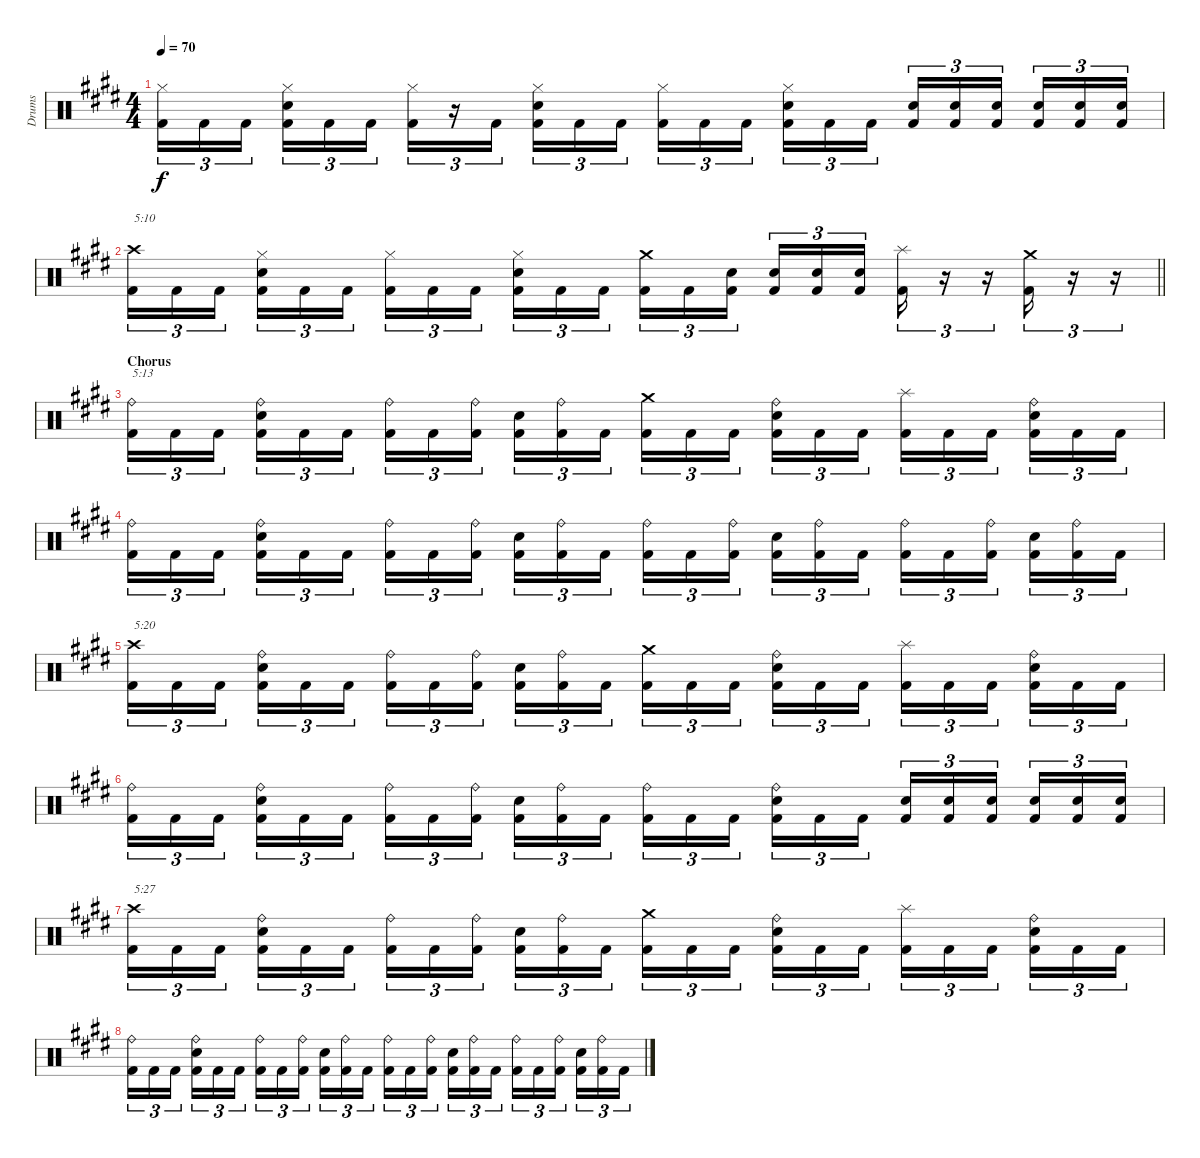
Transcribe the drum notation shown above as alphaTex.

\track ("Drums" "Drums") {instrument percussion}
\staff {score}
\articulation defaults
\ts (4 4)
\tempo 70
\clef neutral
\ks c#minor
("Hi-Hat (closed)" "Kick (hit) 2").16{tu (3 2) dy f} "Kick (hit) 2".16{tu (3 2)} "Kick (hit) 2".16{tu (3 2) beam splitsecondary} ("Hi-Hat (closed)" "Snare (hit) 2" "Kick (hit) 2").16{tu (3 2)} "Kick (hit) 2".16{tu (3 2)} "Kick (hit) 2".16{tu (3 2)} ("Hi-Hat (closed)" "Kick (hit) 2").16{tu (3 2)} r.16{tu (3 2)} "Kick (hit) 2".16{tu (3 2) beam splitsecondary} ("Hi-Hat (closed)" "Snare (hit) 2" "Kick (hit) 2").16{tu (3 2)} "Kick (hit) 2".16{tu (3 2)} "Kick (hit) 2".16{tu (3 2)} ("Hi-Hat (closed)" "Kick (hit) 2").16{tu (3 2)} "Kick (hit) 2".16{tu (3 2)} "Kick (hit) 2".16{tu (3 2) beam splitsecondary} ("Hi-Hat (closed)" "Snare (hit) 2" "Kick (hit) 2").16{tu (3 2)} "Kick (hit) 2".16{tu (3 2)} "Kick (hit) 2".16{tu (3 2)} ("Snare (hit) 2" "Kick (hit) 2").16{tu (3 2)} ("Snare (hit) 2" "Kick (hit) 2").16{tu (3 2)} ("Snare (hit) 2" "Kick (hit) 2").16{tu (3 2) beam splitsecondary} ("Snare (hit) 2" "Kick (hit) 2").16{tu (3 2)} ("Snare (hit) 2" "Kick (hit) 2").16{tu (3 2)} ("Snare (hit) 2" "Kick (hit) 2").16{tu (3 2)} |
\barLineRight lightlight
("Crash high (hit)" "Kick (hit) 2").16{tu (3 2) txt "5:10"} "Kick (hit) 2".16{tu (3 2)} "Kick (hit) 2".16{tu (3 2) beam splitsecondary} ("Hi-Hat (closed)" "Snare (hit) 2" "Kick (hit) 2").16{tu (3 2)} "Kick (hit) 2".16{tu (3 2)} "Kick (hit) 2".16{tu (3 2)} ("Hi-Hat (closed)" "Kick (hit) 2").16{tu (3 2)} "Kick (hit) 2".16{tu (3 2)} "Kick (hit) 2".16{tu (3 2) beam splitsecondary} ("Hi-Hat (closed)" "Snare (hit) 2" "Kick (hit) 2").16{tu (3 2)} "Kick (hit) 2".16{tu (3 2)} "Kick (hit) 2".16{tu (3 2)} ("Crash medium (hit)" "Kick (hit) 2").16{tu (3 2)} "Kick (hit) 2".16{tu (3 2)} ("Snare (hit) 2" "Kick (hit) 2").16{tu (3 2) beam splitsecondary} ("Snare (hit) 2" "Kick (hit) 2").16{tu (3 2)} ("Snare (hit) 2" "Kick (hit) 2").16{tu (3 2)} ("Snare (hit) 2" "Kick (hit) 2").16{tu (3 2)} ("Splash (hit)" "Kick (hit) 2").16{tu (3 2)} r.16{tu (3 2)} r.16{tu (3 2)} ("Crash medium (hit)" "Kick (hit) 2").16{tu (3 2)} r.16{tu (3 2)} r.16{tu (3 2)} |
\section ("" "Chorus")
("Ride (bell)" "Kick (hit) 2").16{tu (3 2) txt "5:13"} "Kick (hit) 2".16{tu (3 2)} "Kick (hit) 2".16{tu (3 2) beam splitsecondary} ("Ride (bell)" "Snare (hit) 2" "Kick (hit) 2").16{tu (3 2)} "Kick (hit) 2".16{tu (3 2)} "Kick (hit) 2".16{tu (3 2)} ("Ride (bell)" "Kick (hit) 2").16{tu (3 2)} "Kick (hit) 2".16{tu (3 2)} ("Ride (bell)" "Kick (hit) 2").16{tu (3 2) beam splitsecondary} ("Snare (hit) 2" "Kick (hit) 2").16{tu (3 2)} ("Ride (bell)" "Kick (hit) 2").16{tu (3 2)} "Kick (hit) 2".16{tu (3 2)} ("Crash medium (hit)" "Kick (hit) 2").16{tu (3 2)} "Kick (hit) 2".16{tu (3 2)} "Kick (hit) 2".16{tu (3 2) beam splitsecondary} ("Ride (bell)" "Snare (hit) 2" "Kick (hit) 2").16{tu (3 2)} "Kick (hit) 2".16{tu (3 2)} "Kick (hit) 2".16{tu (3 2)} ("Splash (hit)" "Kick (hit) 2").16{tu (3 2)} "Kick (hit) 2".16{tu (3 2)} "Kick (hit) 2".16{tu (3 2) beam splitsecondary} ("Ride (bell)" "Snare (hit) 2" "Kick (hit) 2").16{tu (3 2)} "Kick (hit) 2".16{tu (3 2)} "Kick (hit) 2".16{tu (3 2)} |
("Ride (bell)" "Kick (hit) 2").16{tu (3 2)} "Kick (hit) 2".16{tu (3 2)} "Kick (hit) 2".16{tu (3 2) beam splitsecondary} ("Ride (bell)" "Snare (hit) 2" "Kick (hit) 2").16{tu (3 2)} "Kick (hit) 2".16{tu (3 2)} "Kick (hit) 2".16{tu (3 2)} ("Ride (bell)" "Kick (hit) 2").16{tu (3 2)} "Kick (hit) 2".16{tu (3 2)} ("Ride (bell)" "Kick (hit) 2").16{tu (3 2) beam splitsecondary} ("Snare (hit) 2" "Kick (hit) 2").16{tu (3 2)} ("Ride (bell)" "Kick (hit) 2").16{tu (3 2)} "Kick (hit) 2".16{tu (3 2)} ("Ride (bell)" "Kick (hit) 2").16{tu (3 2)} "Kick (hit) 2".16{tu (3 2)} ("Ride (bell)" "Kick (hit) 2").16{tu (3 2) beam splitsecondary} ("Snare (hit) 2" "Kick (hit) 2").16{tu (3 2)} ("Ride (bell)" "Kick (hit) 2").16{tu (3 2)} "Kick (hit) 2".16{tu (3 2)} ("Ride (bell)" "Kick (hit) 2").16{tu (3 2)} "Kick (hit) 2".16{tu (3 2)} ("Ride (bell)" "Kick (hit) 2").16{tu (3 2) beam splitsecondary} ("Snare (hit) 2" "Kick (hit) 2").16{tu (3 2)} ("Ride (bell)" "Kick (hit) 2").16{tu (3 2)} "Kick (hit) 2".16{tu (3 2)} |
("Crash high (hit)" "Kick (hit) 2").16{tu (3 2) txt "5:20"} "Kick (hit) 2".16{tu (3 2)} "Kick (hit) 2".16{tu (3 2) beam splitsecondary} ("Ride (bell)" "Snare (hit) 2" "Kick (hit) 2").16{tu (3 2)} "Kick (hit) 2".16{tu (3 2)} "Kick (hit) 2".16{tu (3 2)} ("Ride (bell)" "Kick (hit) 2").16{tu (3 2)} "Kick (hit) 2".16{tu (3 2)} ("Ride (bell)" "Kick (hit) 2").16{tu (3 2) beam splitsecondary} ("Snare (hit) 2" "Kick (hit) 2").16{tu (3 2)} ("Ride (bell)" "Kick (hit) 2").16{tu (3 2)} "Kick (hit) 2".16{tu (3 2)} ("Crash medium (hit)" "Kick (hit) 2").16{tu (3 2)} "Kick (hit) 2".16{tu (3 2)} "Kick (hit) 2".16{tu (3 2) beam splitsecondary} ("Ride (bell)" "Snare (hit) 2" "Kick (hit) 2").16{tu (3 2)} "Kick (hit) 2".16{tu (3 2)} "Kick (hit) 2".16{tu (3 2)} ("Splash (hit)" "Kick (hit) 2").16{tu (3 2)} "Kick (hit) 2".16{tu (3 2)} "Kick (hit) 2".16{tu (3 2) beam splitsecondary} ("Ride (bell)" "Snare (hit) 2" "Kick (hit) 2").16{tu (3 2)} "Kick (hit) 2".16{tu (3 2)} "Kick (hit) 2".16{tu (3 2)} |
("Ride (bell)" "Kick (hit) 2").16{tu (3 2)} "Kick (hit) 2".16{tu (3 2)} "Kick (hit) 2".16{tu (3 2) beam splitsecondary} ("Ride (bell)" "Snare (hit) 2" "Kick (hit) 2").16{tu (3 2)} "Kick (hit) 2".16{tu (3 2)} "Kick (hit) 2".16{tu (3 2)} ("Ride (bell)" "Kick (hit) 2").16{tu (3 2)} "Kick (hit) 2".16{tu (3 2)} ("Ride (bell)" "Kick (hit) 2").16{tu (3 2) beam splitsecondary} ("Snare (hit) 2" "Kick (hit) 2").16{tu (3 2)} ("Ride (bell)" "Kick (hit) 2").16{tu (3 2)} "Kick (hit) 2".16{tu (3 2)} ("Ride (bell)" "Kick (hit) 2").16{tu (3 2)} "Kick (hit) 2".16{tu (3 2)} "Kick (hit) 2".16{tu (3 2) beam splitsecondary} ("Ride (bell)" "Snare (hit) 2" "Kick (hit) 2").16{tu (3 2)} "Kick (hit) 2".16{tu (3 2)} "Kick (hit) 2".16{tu (3 2)} ("Snare (hit) 2" "Kick (hit) 2").16{tu (3 2)} ("Snare (hit) 2" "Kick (hit) 2").16{tu (3 2)} ("Snare (hit) 2" "Kick (hit) 2").16{tu (3 2) beam splitsecondary} ("Snare (hit) 2" "Kick (hit) 2").16{tu (3 2)} ("Snare (hit) 2" "Kick (hit) 2").16{tu (3 2)} ("Snare (hit) 2" "Kick (hit) 2").16{tu (3 2)} |
("Crash high (hit)" "Kick (hit) 2").16{tu (3 2) txt "5:27"} "Kick (hit) 2".16{tu (3 2)} "Kick (hit) 2".16{tu (3 2) beam splitsecondary} ("Ride (bell)" "Snare (hit) 2" "Kick (hit) 2").16{tu (3 2)} "Kick (hit) 2".16{tu (3 2)} "Kick (hit) 2".16{tu (3 2)} ("Ride (bell)" "Kick (hit) 2").16{tu (3 2)} "Kick (hit) 2".16{tu (3 2)} ("Ride (bell)" "Kick (hit) 2").16{tu (3 2) beam splitsecondary} ("Snare (hit) 2" "Kick (hit) 2").16{tu (3 2)} ("Ride (bell)" "Kick (hit) 2").16{tu (3 2)} "Kick (hit) 2".16{tu (3 2)} ("Crash medium (hit)" "Kick (hit) 2").16{tu (3 2)} "Kick (hit) 2".16{tu (3 2)} "Kick (hit) 2".16{tu (3 2) beam splitsecondary} ("Ride (bell)" "Snare (hit) 2" "Kick (hit) 2").16{tu (3 2)} "Kick (hit) 2".16{tu (3 2)} "Kick (hit) 2".16{tu (3 2)} ("Splash (hit)" "Kick (hit) 2").16{tu (3 2)} "Kick (hit) 2".16{tu (3 2)} "Kick (hit) 2".16{tu (3 2) beam splitsecondary} ("Ride (bell)" "Snare (hit) 2" "Kick (hit) 2").16{tu (3 2)} "Kick (hit) 2".16{tu (3 2)} "Kick (hit) 2".16{tu (3 2)} |
("Ride (bell)" "Kick (hit) 2").16{tu (3 2)} "Kick (hit) 2".16{tu (3 2)} "Kick (hit) 2".16{tu (3 2) beam splitsecondary} ("Ride (bell)" "Snare (hit) 2" "Kick (hit) 2").16{tu (3 2)} "Kick (hit) 2".16{tu (3 2)} "Kick (hit) 2".16{tu (3 2)} ("Ride (bell)" "Kick (hit) 2").16{tu (3 2)} "Kick (hit) 2".16{tu (3 2)} ("Ride (bell)" "Kick (hit) 2").16{tu (3 2) beam splitsecondary} ("Snare (hit) 2" "Kick (hit) 2").16{tu (3 2)} ("Ride (bell)" "Kick (hit) 2").16{tu (3 2)} "Kick (hit) 2".16{tu (3 2)} ("Ride (bell)" "Kick (hit) 2").16{tu (3 2)} "Kick (hit) 2".16{tu (3 2)} ("Ride (bell)" "Kick (hit) 2").16{tu (3 2) beam splitsecondary} ("Snare (hit) 2" "Kick (hit) 2").16{tu (3 2)} ("Ride (bell)" "Kick (hit) 2").16{tu (3 2)} "Kick (hit) 2".16{tu (3 2)} ("Ride (bell)" "Kick (hit) 2").16{tu (3 2)} "Kick (hit) 2".16{tu (3 2)} ("Ride (bell)" "Kick (hit) 2").16{tu (3 2) beam splitsecondary} ("Snare (hit) 2" "Kick (hit) 2").16{tu (3 2)} ("Ride (bell)" "Kick (hit) 2").16{tu (3 2)} "Kick (hit) 2".16{tu (3 2)}
